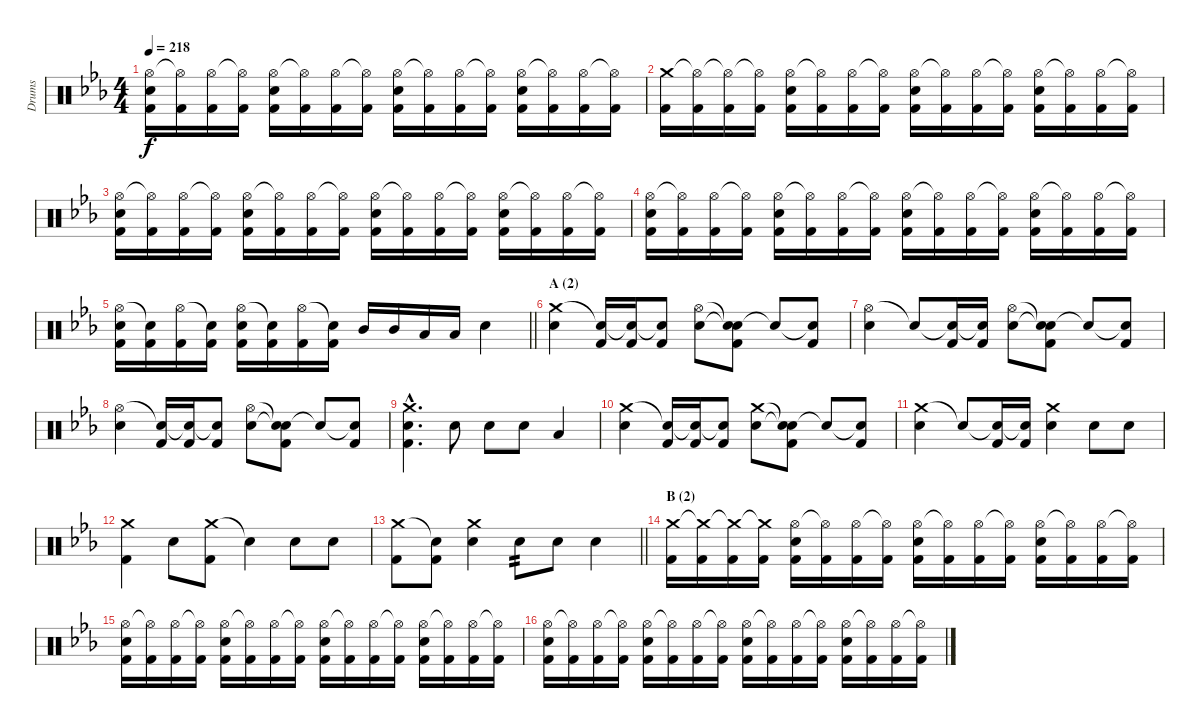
\track ("Drums" "Drums") {instrument percussion}
\staff {score}
\articulation defaults
\ts (4 4)
\tempo 218
\clef neutral
\ks eb
("Hi-Hat (open)" "Electric Snare (hit)" "Kick (hit) 2").16{dy f} ("Hi-Hat (open)"{t} "Kick (hit) 2").16 ("Hi-Hat (open)" "Kick (hit) 2").16 ("Hi-Hat (open)"{t} "Kick (hit) 2").16 ("Hi-Hat (open)" "Electric Snare (hit)" "Kick (hit) 2").16 ("Hi-Hat (open)"{t} "Kick (hit) 2").16 ("Hi-Hat (open)" "Kick (hit) 2").16 ("Hi-Hat (open)"{t} "Kick (hit) 2").16 ("Hi-Hat (open)" "Electric Snare (hit)" "Kick (hit) 2").16 ("Hi-Hat (open)"{t} "Kick (hit) 2").16 ("Hi-Hat (open)" "Kick (hit) 2").16 ("Hi-Hat (open)"{t} "Kick (hit) 2").16 ("Hi-Hat (open)" "Electric Snare (hit)" "Kick (hit) 2").16 ("Hi-Hat (open)"{t} "Kick (hit) 2").16 ("Hi-Hat (open)" "Kick (hit) 2").16 ("Hi-Hat (open)"{t} "Kick (hit) 2").16 |
("Crash medium (hit)" "Kick (hit) 2").16 ("Hi-Hat (open)"{t} "Kick (hit) 2").16 ("Hi-Hat (open)"{t} "Kick (hit) 2").16 ("Hi-Hat (open)"{t} "Kick (hit) 2").16 ("Hi-Hat (open)" "Electric Snare (hit)" "Kick (hit) 2").16 ("Hi-Hat (open)"{t} "Kick (hit) 2").16 ("Hi-Hat (open)" "Kick (hit) 2").16 ("Hi-Hat (open)"{t} "Kick (hit) 2").16 ("Hi-Hat (open)" "Electric Snare (hit)" "Kick (hit) 2").16 ("Hi-Hat (open)"{t} "Kick (hit) 2").16 ("Hi-Hat (open)" "Kick (hit) 2").16 ("Hi-Hat (open)"{t} "Kick (hit) 2").16 ("Hi-Hat (open)" "Electric Snare (hit)" "Kick (hit) 2").16 ("Hi-Hat (open)"{t} "Kick (hit) 2").16 ("Hi-Hat (open)" "Kick (hit) 2").16 ("Hi-Hat (open)"{t} "Kick (hit) 2").16 |
("Hi-Hat (open)" "Electric Snare (hit)" "Kick (hit) 2").16 ("Hi-Hat (open)"{t} "Kick (hit) 2").16 ("Hi-Hat (open)" "Kick (hit) 2").16 ("Hi-Hat (open)"{t} "Kick (hit) 2").16 ("Hi-Hat (open)" "Electric Snare (hit)" "Kick (hit) 2").16 ("Hi-Hat (open)"{t} "Kick (hit) 2").16 ("Hi-Hat (open)" "Kick (hit) 2").16 ("Hi-Hat (open)"{t} "Kick (hit) 2").16 ("Hi-Hat (open)" "Electric Snare (hit)" "Kick (hit) 2").16 ("Hi-Hat (open)"{t} "Kick (hit) 2").16 ("Hi-Hat (open)" "Kick (hit) 2").16 ("Hi-Hat (open)"{t} "Kick (hit) 2").16 ("Hi-Hat (open)" "Electric Snare (hit)" "Kick (hit) 2").16 ("Hi-Hat (open)"{t} "Kick (hit) 2").16 ("Hi-Hat (open)" "Kick (hit) 2").16 ("Hi-Hat (open)"{t} "Kick (hit) 2").16 |
("Hi-Hat (open)" "Electric Snare (hit)" "Kick (hit) 2").16 ("Hi-Hat (open)"{t} "Kick (hit) 2").16 ("Hi-Hat (open)" "Kick (hit) 2").16 ("Hi-Hat (open)"{t} "Kick (hit) 2").16 ("Hi-Hat (open)" "Electric Snare (hit)" "Kick (hit) 2").16 ("Hi-Hat (open)"{t} "Kick (hit) 2").16 ("Hi-Hat (open)" "Kick (hit) 2").16 ("Hi-Hat (open)"{t} "Kick (hit) 2").16 ("Hi-Hat (open)" "Electric Snare (hit)" "Kick (hit) 2").16 ("Hi-Hat (open)"{t} "Kick (hit) 2").16 ("Hi-Hat (open)" "Kick (hit) 2").16 ("Hi-Hat (open)"{t} "Kick (hit) 2").16 ("Hi-Hat (open)" "Electric Snare (hit)" "Kick (hit) 2").16 ("Hi-Hat (open)"{t} "Kick (hit) 2").16 ("Hi-Hat (open)" "Kick (hit) 2").16 ("Hi-Hat (open)"{t} "Kick (hit) 2").16 |
\barLineRight lightlight
("Hi-Hat (open)" "Electric Snare (hit)" "Kick (hit) 2").16 ("Snare (hit)"{t} "Kick (hit) 2").16 ("Hi-Hat (open)" "Kick (hit) 2").16 ("Snare (hit)"{t} "Kick (hit) 2").16 ("Hi-Hat (open)" "Electric Snare (hit)" "Kick (hit) 2").16 ("Snare (hit)"{t} "Kick (hit) 2").16 ("Hi-Hat (open)" "Kick (hit) 2").16 ("Snare (hit)"{t} "Kick (hit) 2").16 "Mid Tom (hit)".16 "Mid Tom (hit)".16 "Low Tom (hit)".16 "Low Floor Tom (hit)".16 "Electric Snare (hit)".4 |
\section ("" "A (2)")
("Crash medium (hit)" "Electric Snare (hit)").4 ("Snare (hit)"{t} "Kick (hit) 2").16 ("Snare (hit)"{t} "Kick (hit) 2").16 ("Snare (hit)"{t} "Kick (hit) 2").8 ("Hi-Hat (open)" "Electric Snare (hit)").8 ("Snare (hit)"{t} "Snare (hit)"{t} "Kick (hit) 2").8 "Snare (hit)"{t}.8 ("Snare (hit)"{t} "Kick (hit) 2").8 |
("Hi-Hat (open)" "Electric Snare (hit)").4 "Snare (hit)"{t}.8 ("Snare (hit)"{t} "Kick (hit) 2").16 ("Snare (hit)"{t} "Kick (hit) 2").16 ("Hi-Hat (open)" "Electric Snare (hit)").8 ("Snare (hit)"{t} "Snare (hit)"{t} "Kick (hit) 2").8 "Snare (hit)"{t}.8 ("Snare (hit)"{t} "Kick (hit) 2").8 |
("Hi-Hat (open)" "Electric Snare (hit)").4 ("Snare (hit)"{t} "Kick (hit) 2").16 ("Snare (hit)"{t} "Kick (hit) 2").16 ("Snare (hit)"{t} "Kick (hit) 2").8 ("Hi-Hat (open)" "Electric Snare (hit)").8 ("Snare (hit)"{t} "Snare (hit)"{t} "Kick (hit) 2").8 "Snare (hit)"{t}.8 ("Snare (hit)"{t} "Kick (hit) 2").8 |
("Crash medium (hit)"{hac} "Electric Snare (hit)"{hac} "Kick (hit) 2"{hac}).4{d} "Electric Snare (hit)".8 "Electric Snare (hit)".8 "Electric Snare (hit)".8 "Low Floor Tom (hit)".4 |
("Crash medium (hit)" "Electric Snare (hit)").4 ("Snare (hit)"{t} "Kick (hit) 2").16 ("Snare (hit)"{t} "Kick (hit) 2").16 ("Snare (hit)"{t} "Kick (hit) 2").8 ("Crash medium (hit)" "Electric Snare (hit)").8 ("Snare (hit)"{t} "Snare (hit)"{t} "Kick (hit) 2").8 "Snare (hit)"{t}.8 ("Snare (hit)"{t} "Kick (hit) 2").8 |
("Crash medium (hit)" "Electric Snare (hit)").4 "Snare (hit)"{t}.8 ("Snare (hit)"{t} "Kick (hit) 2").16 ("Snare (hit)"{t} "Kick (hit) 2").16 ("Crash medium (hit)" "Electric Snare (hit)").4 "Electric Snare (hit)".8 "Electric Snare (hit)".8 |
("Crash medium (hit)" "Kick (hit) 2").4 "Electric Snare (hit)".8 ("Crash medium (hit)" "Kick (hit) 2").8 "Snare (hit)"{t}.4 "Electric Snare (hit)".8 "Electric Snare (hit)".8 |
\barLineRight lightlight
("Crash medium (hit)" "Kick (hit) 2").8 ("Snare (hit)"{t} "Kick (hit) 2").8 ("Crash medium (hit)" "Electric Snare (hit)").4 "Electric Snare (hit)".8{tp 2} "Electric Snare (hit)".8 "Electric Snare (hit)".4 |
\section ("" "B (2)")
("Crash medium (hit)" "Kick (hit) 2").16 ("Crash medium (hit)"{t} "Kick (hit) 2").16 ("Crash medium (hit)"{t} "Kick (hit) 2").16 ("Crash medium (hit)"{t} "Kick (hit) 2").16 ("Hi-Hat (open)" "Electric Snare (hit)" "Kick (hit) 2").16 ("Hi-Hat (open)"{t} "Kick (hit) 2").16 ("Hi-Hat (open)" "Kick (hit) 2").16 ("Hi-Hat (open)"{t} "Kick (hit) 2").16 ("Hi-Hat (open)" "Electric Snare (hit)" "Kick (hit) 2").16 ("Hi-Hat (open)"{t} "Kick (hit) 2").16 ("Hi-Hat (open)" "Kick (hit) 2").16 ("Hi-Hat (open)"{t} "Kick (hit) 2").16 ("Hi-Hat (open)" "Electric Snare (hit)" "Kick (hit) 2").16 ("Hi-Hat (open)"{t} "Kick (hit) 2").16 ("Hi-Hat (open)" "Kick (hit) 2").16 ("Hi-Hat (open)"{t} "Kick (hit) 2").16 |
("Hi-Hat (open)" "Electric Snare (hit)" "Kick (hit) 2").16 ("Hi-Hat (open)"{t} "Kick (hit) 2").16 ("Hi-Hat (open)" "Kick (hit) 2").16 ("Hi-Hat (open)"{t} "Kick (hit) 2").16 ("Hi-Hat (open)" "Electric Snare (hit)" "Kick (hit) 2").16 ("Hi-Hat (open)"{t} "Kick (hit) 2").16 ("Hi-Hat (open)" "Kick (hit) 2").16 ("Hi-Hat (open)"{t} "Kick (hit) 2").16 ("Hi-Hat (open)" "Electric Snare (hit)" "Kick (hit) 2").16 ("Hi-Hat (open)"{t} "Kick (hit) 2").16 ("Hi-Hat (open)" "Kick (hit) 2").16 ("Hi-Hat (open)"{t} "Kick (hit) 2").16 ("Hi-Hat (open)" "Electric Snare (hit)" "Kick (hit) 2").16 ("Hi-Hat (open)"{t} "Kick (hit) 2").16 ("Hi-Hat (open)" "Kick (hit) 2").16 ("Hi-Hat (open)"{t} "Kick (hit) 2").16 |
("Hi-Hat (open)" "Electric Snare (hit)" "Kick (hit) 2").16 ("Hi-Hat (open)"{t} "Kick (hit) 2").16 ("Hi-Hat (open)" "Kick (hit) 2").16 ("Hi-Hat (open)"{t} "Kick (hit) 2").16 ("Hi-Hat (open)" "Electric Snare (hit)" "Kick (hit) 2").16 ("Hi-Hat (open)"{t} "Kick (hit) 2").16 ("Hi-Hat (open)" "Kick (hit) 2").16 ("Hi-Hat (open)"{t} "Kick (hit) 2").16 ("Hi-Hat (open)" "Electric Snare (hit)" "Kick (hit) 2").16 ("Hi-Hat (open)"{t} "Kick (hit) 2").16 ("Hi-Hat (open)" "Kick (hit) 2").16 ("Hi-Hat (open)"{t} "Kick (hit) 2").16 ("Hi-Hat (open)" "Electric Snare (hit)" "Kick (hit) 2").16 ("Hi-Hat (open)"{t} "Kick (hit) 2").16 ("Hi-Hat (open)" "Kick (hit) 2").16 ("Hi-Hat (open)"{t} "Kick (hit) 2").16
